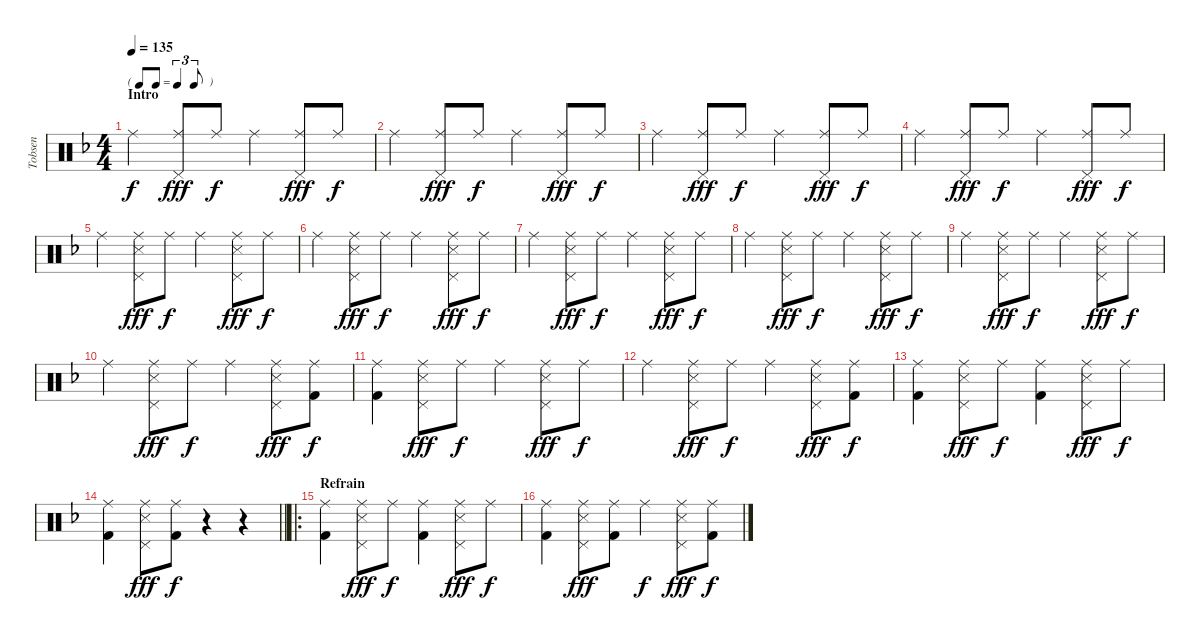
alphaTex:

\track ("Tobsen" "Tobsen") {instrument percussion}
\staff {score}
\articulation defaults
\ts (4 4)
\tf triplet8th
\section ("" "Intro")
\tempo 135
\clef neutral
\ks f "Ride (middle)".4{dy f}
("Ride (middle)" "Pedal Hi-Hat (hit)").8{dy fff} "Ride (middle)".8{dy f} "Ride (middle)".4 ("Ride (middle)" "Pedal Hi-Hat (hit)").8{dy fff} "Ride (middle)".8{dy f} |
"Ride (middle)".4 ("Ride (middle)" "Pedal Hi-Hat (hit)").8{dy fff} "Ride (middle)".8{dy f} "Ride (middle)".4 ("Ride (middle)" "Pedal Hi-Hat (hit)").8{dy fff} "Ride (middle)".8{dy f} |
"Ride (middle)".4 ("Ride (middle)" "Pedal Hi-Hat (hit)").8{dy fff} "Ride (middle)".8{dy f} "Ride (middle)".4 ("Ride (middle)" "Pedal Hi-Hat (hit)").8{dy fff} "Ride (middle)".8{dy f} |
"Ride (middle)".4 ("Ride (middle)" "Pedal Hi-Hat (hit)").8{dy fff} "Ride (middle)".8{dy f} "Ride (middle)".4 ("Ride (middle)" "Pedal Hi-Hat (hit)").8{dy fff} "Ride (middle)".8{dy f} |
"Ride (middle)".4 ("Ride (middle)" "Pedal Hi-Hat (hit)" "Snare (side stick) 3").8{dy fff} "Ride (middle)".8{dy f} "Ride (middle)".4 ("Ride (middle)" "Pedal Hi-Hat (hit)" "Snare (side stick) 3").8{dy fff} "Ride (middle)".8{dy f} |
"Ride (middle)".4 ("Ride (middle)" "Pedal Hi-Hat (hit)" "Snare (side stick) 3").8{dy fff} "Ride (middle)".8{dy f} "Ride (middle)".4 ("Ride (middle)" "Pedal Hi-Hat (hit)" "Snare (side stick) 3").8{dy fff} "Ride (middle)".8{dy f} |
"Ride (middle)".4 ("Ride (middle)" "Pedal Hi-Hat (hit)" "Snare (side stick) 3").8{dy fff} "Ride (middle)".8{dy f} "Ride (middle)".4 ("Ride (middle)" "Pedal Hi-Hat (hit)" "Snare (side stick) 3").8{dy fff} "Ride (middle)".8{dy f} |
"Ride (middle)".4 ("Ride (middle)" "Pedal Hi-Hat (hit)" "Snare (side stick) 3").8{dy fff} "Ride (middle)".8{dy f} "Ride (middle)".4 ("Ride (middle)" "Pedal Hi-Hat (hit)" "Snare (side stick) 3").8{dy fff} "Ride (middle)".8{dy f} |
"Ride (middle)".4 ("Ride (middle)" "Pedal Hi-Hat (hit)" "Snare (side stick) 3").8{dy fff} "Ride (middle)".8{dy f} "Ride (middle)".4 ("Ride (middle)" "Pedal Hi-Hat (hit)" "Snare (side stick) 3").8{dy fff} "Ride (middle)".8{dy f} |
"Ride (middle)".4 ("Ride (middle)" "Pedal Hi-Hat (hit)" "Snare (side stick) 3").8{dy fff} "Ride (middle)".8{dy f} "Ride (middle)".4 ("Ride (middle)" "Pedal Hi-Hat (hit)" "Snare (side stick) 3").8{dy fff} ("Ride (middle)" "Kick (hit) 2").8{dy f} |
("Ride (middle)" "Kick (hit) 2").4 ("Ride (middle)" "Pedal Hi-Hat (hit)" "Snare (side stick) 3").8{dy fff} "Ride (middle)".8{dy f} "Ride (middle)".4 ("Ride (middle)" "Pedal Hi-Hat (hit)" "Snare (side stick) 3").8{dy fff} "Ride (middle)".8{dy f} |
"Ride (middle)".4 ("Ride (middle)" "Pedal Hi-Hat (hit)" "Snare (side stick) 3").8{dy fff} "Ride (middle)".8{dy f} "Ride (middle)".4 ("Ride (middle)" "Pedal Hi-Hat (hit)" "Snare (side stick) 3").8{dy fff} ("Ride (middle)" "Kick (hit) 2").8{dy f} |
("Ride (middle)" "Kick (hit) 2").4 ("Ride (middle)" "Pedal Hi-Hat (hit)" "Snare (side stick) 3").8{dy fff} "Ride (middle)".8{dy f} ("Ride (middle)" "Kick (hit) 2").4 ("Ride (middle)" "Pedal Hi-Hat (hit)" "Snare (side stick) 3").8{dy fff} "Ride (middle)".8{dy f} |
\barLineRight lightlight
("Ride (middle)" "Kick (hit) 2").4 ("Ride (middle)" "Pedal Hi-Hat (hit)" "Snare (side stick) 3").8{dy fff} ("Ride (middle)" "Kick (hit) 2").8{dy f} r.4 r.4 |
\ro
\section ("" "Refrain")
("Ride (middle)" "Kick (hit) 2").4 ("Ride (middle)" "Pedal Hi-Hat (hit)" "Snare (side stick) 3").8{dy fff} "Ride (middle)".8{dy f} ("Ride (middle)" "Kick (hit) 2").4 ("Ride (middle)" "Pedal Hi-Hat (hit)" "Snare (side stick) 3").8{dy fff} "Ride (middle)".8{dy f} |
("Ride (middle)" "Kick (hit) 2").4 ("Ride (middle)" "Pedal Hi-Hat (hit)" "Snare (side stick) 3").8{dy fff} ("Ride (middle)" "Kick (hit) 2").8 "Ride (middle)".4{dy f} ("Ride (middle)" "Pedal Hi-Hat (hit)" "Snare (side stick) 3").8{dy fff} ("Ride (middle)" "Kick (hit) 2").8{dy f}
